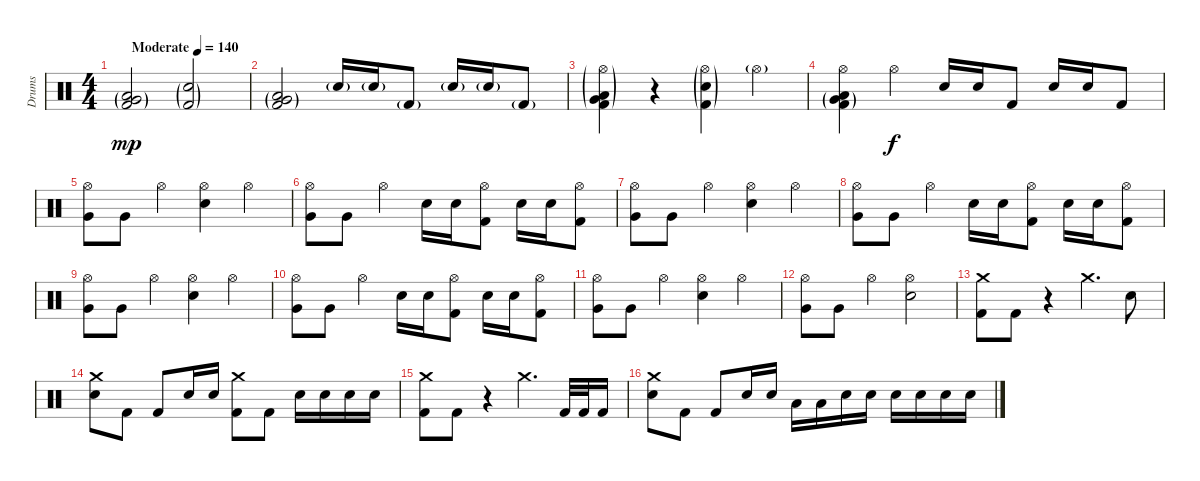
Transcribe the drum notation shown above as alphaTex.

\track ("Drums" "Drums") {instrument percussion}
\staff {score}
\articulation defaults
\ts (4 4)
\tempo (140 "Moderate")
\clef neutral
\ks c
("Very Low Tom (hit)"{g} "Low Tom (hit)"{g} "Kick (hit) 2"{g}).2{dy mp} ("Electric Snare (hit)"{g} "Kick (hit) 2"{g}).2 |
("Very Low Tom (hit)"{g} "Low Tom (hit)"{g} "Kick (hit) 2"{g}).2 "Electric Snare (hit)"{g}.16 "Electric Snare (hit)"{g}.16 "Kick (hit) 2"{g}.8 "Electric Snare (hit)"{g}.16 "Electric Snare (hit)"{g}.16 "Kick (hit) 2"{g}.8 |
("Hi-Hat (open)"{g} "Very Low Tom (hit)"{g} "Low Tom (hit)"{g} "Kick (hit) 2"{g}).4 r.4 ("Hi-Hat (open)"{g} "Electric Snare (hit)"{g} "Kick (hit) 2"{g}).4 "Hi-Hat (open)"{g}.4 |
("Hi-Hat (open)" "Very Low Tom (hit)"{g} "Low Tom (hit)"{g} "Kick (hit) 2"{g}).4 "Hi-Hat (open)".4{dy f} "Electric Snare (hit)".16 "Electric Snare (hit)".16 "Kick (hit) 2".8 "Electric Snare (hit)".16 "Electric Snare (hit)".16 "Kick (hit) 2".8 |
("Hi-Hat (open)" "Very Low Tom (hit)").8 "Very Low Tom (hit)".8 "Hi-Hat (open)".4 ("Hi-Hat (open)" "Electric Snare (hit)").4 "Hi-Hat (open)".4 |
("Hi-Hat (open)" "Very Low Tom (hit)").8 "Very Low Tom (hit)".8 "Hi-Hat (open)".4 "Electric Snare (hit)".16 "Electric Snare (hit)".16 ("Hi-Hat (open)" "Kick (hit) 2").8 "Electric Snare (hit)".16 "Electric Snare (hit)".16 ("Hi-Hat (open)" "Kick (hit) 2").8 |
("Hi-Hat (open)" "Very Low Tom (hit)").8 "Very Low Tom (hit)".8 "Hi-Hat (open)".4 ("Hi-Hat (open)" "Electric Snare (hit)").4 "Hi-Hat (open)".4 |
("Hi-Hat (open)" "Very Low Tom (hit)").8 "Very Low Tom (hit)".8 "Hi-Hat (open)".4 "Electric Snare (hit)".16 "Electric Snare (hit)".16 ("Hi-Hat (open)" "Kick (hit) 2").8 "Electric Snare (hit)".16 "Electric Snare (hit)".16 ("Hi-Hat (open)" "Kick (hit) 2").8 |
("Hi-Hat (open)" "Very Low Tom (hit)").8 "Very Low Tom (hit)".8 "Hi-Hat (open)".4 ("Hi-Hat (open)" "Electric Snare (hit)").4 "Hi-Hat (open)".4 |
("Hi-Hat (open)" "Very Low Tom (hit)").8 "Very Low Tom (hit)".8 "Hi-Hat (open)".4 "Electric Snare (hit)".16 "Electric Snare (hit)".16 ("Hi-Hat (open)" "Kick (hit) 2").8 "Electric Snare (hit)".16 "Electric Snare (hit)".16 ("Hi-Hat (open)" "Kick (hit) 2").8 |
("Hi-Hat (open)" "Very Low Tom (hit)").8 "Very Low Tom (hit)".8 "Hi-Hat (open)".4 ("Hi-Hat (open)" "Electric Snare (hit)").4 "Hi-Hat (open)".4 |
("Hi-Hat (open)" "Very Low Tom (hit)").8 "Very Low Tom (hit)".8 "Hi-Hat (open)".4 ("Hi-Hat (open)" "Electric Snare (hit)").2 |
("Crash medium (hit)" "Kick (hit) 2").8 "Kick (hit) 2".8 r.4 "Crash medium (hit)".4{d} "Electric Snare (hit)".8 |
("Crash medium (hit)" "Electric Snare (hit)").8 "Kick (hit) 2".8 "Kick (hit) 2".8 "Electric Snare (hit)".16 "Electric Snare (hit)".16 ("Crash medium (hit)" "Kick (hit) 2").8 "Kick (hit) 2".8 "Electric Snare (hit)".16 "Electric Snare (hit)".16 "Electric Snare (hit)".16 "Electric Snare (hit)".16 |
("Crash medium (hit)" "Kick (hit) 2").8 "Kick (hit) 2".8 r.4 "Crash medium (hit)".4{d} "Kick (hit) 2".32 "Kick (hit) 2".32 "Kick (hit) 2".16 |
("Crash medium (hit)" "Electric Snare (hit)").8 "Kick (hit) 2".8 "Kick (hit) 2".8 "Electric Snare (hit)".16 "Electric Snare (hit)".16 "Low Tom (hit)".16 "Low Tom (hit)".16 "Electric Snare (hit)".16 "Electric Snare (hit)".16 "Electric Snare (hit)".16 "Electric Snare (hit)".16 "Electric Snare (hit)".16 "Electric Snare (hit)".16
